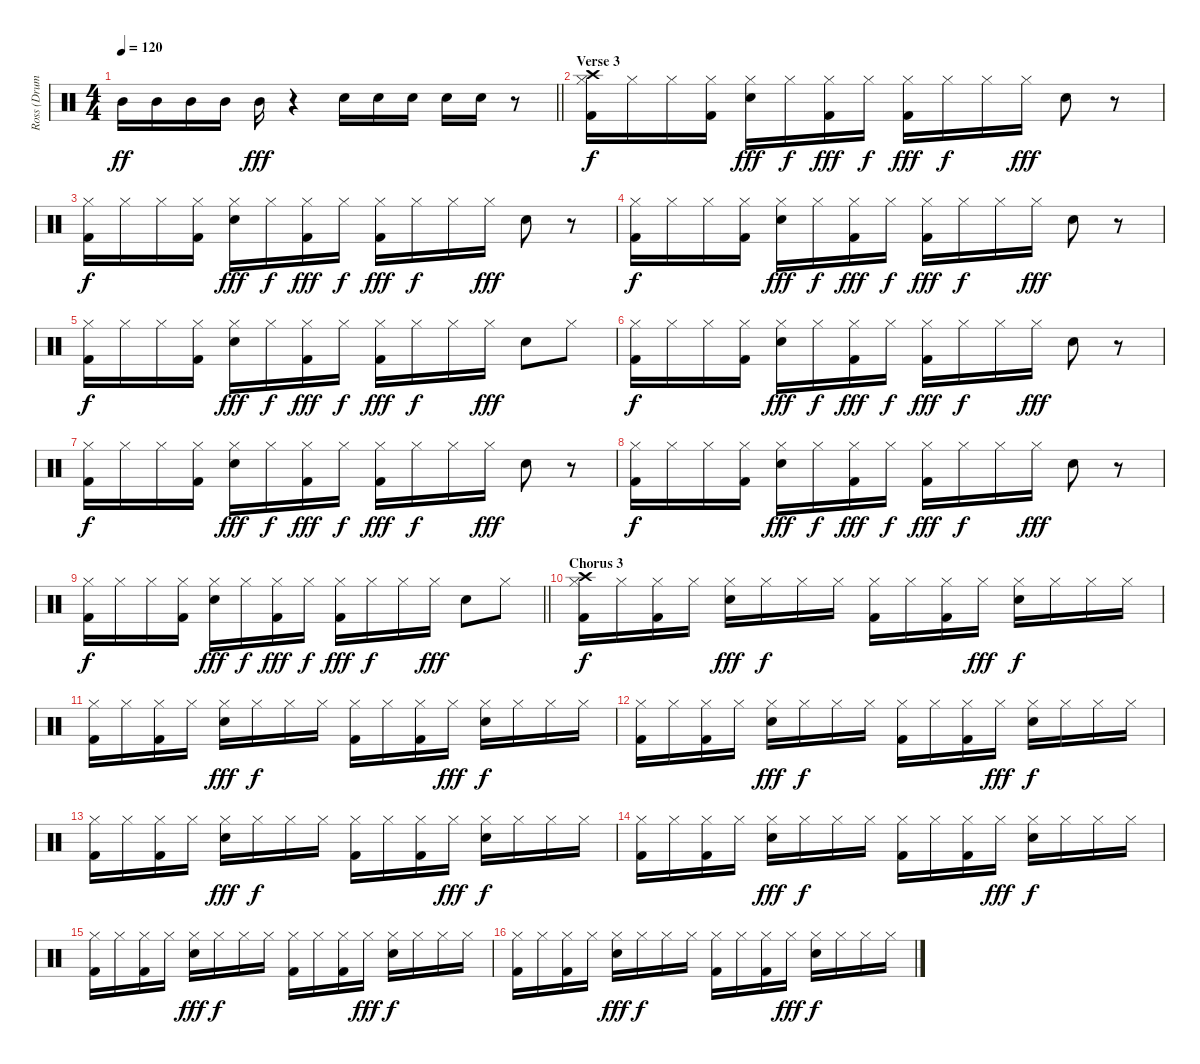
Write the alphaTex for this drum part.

\track ("Ross (Drums)" "Ross (Drum") {instrument percussion}
\staff {score}
\articulation defaults
\ts (4 4)
\tempo 120
\clef neutral
\barLineRight lightlight
\ks c "Mid Tom (hit)".16{dy ff} "Mid Tom (hit)".16 "Mid Tom (hit)".16 "Mid Tom (hit)".16 "Mid Tom (hit)".16{dy fff}
r.4 "Snare (hit) 2".16 "Snare (hit) 2".16 "Snare (hit) 2".16 "Snare (hit) 2".16 "Snare (hit) 2".16 r.8 |
\section ("" "Verse 3")
("Crash high (hit)" "Hi-Hat (closed)" "Kick (hit) 2").16{dy f} "Hi-Hat (closed)".16 "Hi-Hat (closed)".16 ("Hi-Hat (closed)" "Kick (hit) 2").16 ("Hi-Hat (closed)" "Snare (hit) 2").16{dy fff} "Hi-Hat (closed)".16{dy f} ("Hi-Hat (closed)" "Kick (hit) 2").16{dy fff} "Hi-Hat (closed)".16{dy f} ("Hi-Hat (closed)" "Kick (hit) 2").16{dy fff} "Hi-Hat (closed)".16{dy f} "Hi-Hat (closed)".16 "Hi-Hat (closed)".16{dy fff} "Snare (hit) 2".8 r.8 |
("Hi-Hat (closed)" "Kick (hit) 2").16{dy f} "Hi-Hat (closed)".16 "Hi-Hat (closed)".16 ("Hi-Hat (closed)" "Kick (hit) 2").16 ("Hi-Hat (closed)" "Snare (hit) 2").16{dy fff} "Hi-Hat (closed)".16{dy f} ("Hi-Hat (closed)" "Kick (hit) 2").16{dy fff} "Hi-Hat (closed)".16{dy f} ("Hi-Hat (closed)" "Kick (hit) 2").16{dy fff} "Hi-Hat (closed)".16{dy f} "Hi-Hat (closed)".16 "Hi-Hat (closed)".16{dy fff} "Snare (hit) 2".8 r.8 |
("Hi-Hat (closed)" "Kick (hit) 2").16{dy f} "Hi-Hat (closed)".16 "Hi-Hat (closed)".16 ("Hi-Hat (closed)" "Kick (hit) 2").16 ("Hi-Hat (closed)" "Snare (hit) 2").16{dy fff} "Hi-Hat (closed)".16{dy f} ("Hi-Hat (closed)" "Kick (hit) 2").16{dy fff} "Hi-Hat (closed)".16{dy f} ("Hi-Hat (closed)" "Kick (hit) 2").16{dy fff} "Hi-Hat (closed)".16{dy f} "Hi-Hat (closed)".16 "Hi-Hat (closed)".16{dy fff} "Snare (hit) 2".8 r.8 |
("Hi-Hat (closed)" "Kick (hit) 2").16{dy f} "Hi-Hat (closed)".16 "Hi-Hat (closed)".16 ("Hi-Hat (closed)" "Kick (hit) 2").16 ("Hi-Hat (closed)" "Snare (hit) 2").16{dy fff} "Hi-Hat (closed)".16{dy f} ("Hi-Hat (closed)" "Kick (hit) 2").16{dy fff} "Hi-Hat (closed)".16{dy f} ("Hi-Hat (closed)" "Kick (hit) 2").16{dy fff} "Hi-Hat (closed)".16{dy f} "Hi-Hat (closed)".16 "Hi-Hat (closed)".16{dy fff} "Snare (hit) 2".8 "Hi-Hat (closed)".8 |
("Hi-Hat (closed)" "Kick (hit) 2").16{dy f} "Hi-Hat (closed)".16 "Hi-Hat (closed)".16 ("Hi-Hat (closed)" "Kick (hit) 2").16 ("Hi-Hat (closed)" "Snare (hit) 2").16{dy fff} "Hi-Hat (closed)".16{dy f} ("Hi-Hat (closed)" "Kick (hit) 2").16{dy fff} "Hi-Hat (closed)".16{dy f} ("Hi-Hat (closed)" "Kick (hit) 2").16{dy fff} "Hi-Hat (closed)".16{dy f} "Hi-Hat (closed)".16 "Hi-Hat (closed)".16{dy fff} "Snare (hit) 2".8 r.8 |
("Hi-Hat (closed)" "Kick (hit) 2").16{dy f} "Hi-Hat (closed)".16 "Hi-Hat (closed)".16 ("Hi-Hat (closed)" "Kick (hit) 2").16 ("Hi-Hat (closed)" "Snare (hit) 2").16{dy fff} "Hi-Hat (closed)".16{dy f} ("Hi-Hat (closed)" "Kick (hit) 2").16{dy fff} "Hi-Hat (closed)".16{dy f} ("Hi-Hat (closed)" "Kick (hit) 2").16{dy fff} "Hi-Hat (closed)".16{dy f} "Hi-Hat (closed)".16 "Hi-Hat (closed)".16{dy fff} "Snare (hit) 2".8 r.8 |
("Hi-Hat (closed)" "Kick (hit) 2").16{dy f} "Hi-Hat (closed)".16 "Hi-Hat (closed)".16 ("Hi-Hat (closed)" "Kick (hit) 2").16 ("Hi-Hat (closed)" "Snare (hit) 2").16{dy fff} "Hi-Hat (closed)".16{dy f} ("Hi-Hat (closed)" "Kick (hit) 2").16{dy fff} "Hi-Hat (closed)".16{dy f} ("Hi-Hat (closed)" "Kick (hit) 2").16{dy fff} "Hi-Hat (closed)".16{dy f} "Hi-Hat (closed)".16 "Hi-Hat (closed)".16{dy fff} "Snare (hit) 2".8 r.8 |
\barLineRight lightlight
("Hi-Hat (closed)" "Kick (hit) 2").16{dy f} "Hi-Hat (closed)".16 "Hi-Hat (closed)".16 ("Hi-Hat (closed)" "Kick (hit) 2").16 ("Hi-Hat (closed)" "Snare (hit) 2").16{dy fff} "Hi-Hat (closed)".16{dy f} ("Hi-Hat (closed)" "Kick (hit) 2").16{dy fff} "Hi-Hat (closed)".16{dy f} ("Hi-Hat (closed)" "Kick (hit) 2").16{dy fff} "Hi-Hat (closed)".16{dy f} "Hi-Hat (closed)".16 "Hi-Hat (closed)".16{dy fff} "Snare (hit) 2".8 "Hi-Hat (closed)".8 |
\section ("" "Chorus 3")
("Crash high (hit)" "Hi-Hat (closed)" "Kick (hit) 2").16{dy f} "Hi-Hat (closed)".16 ("Hi-Hat (closed)" "Kick (hit) 2").16 "Hi-Hat (closed)".16 ("Hi-Hat (closed)" "Snare (hit) 2").16{dy fff} "Hi-Hat (closed)".16{dy f} "Hi-Hat (closed)".16 "Hi-Hat (closed)".16 ("Hi-Hat (closed)" "Kick (hit) 2").16 "Hi-Hat (closed)".16 ("Hi-Hat (closed)" "Kick (hit) 2").16 "Hi-Hat (closed)".16{dy fff} ("Hi-Hat (closed)" "Snare (hit) 2").16{dy f} "Hi-Hat (closed)".16 "Hi-Hat (closed)".16 "Hi-Hat (closed)".16 |
("Hi-Hat (closed)" "Kick (hit) 2").16 "Hi-Hat (closed)".16 ("Hi-Hat (closed)" "Kick (hit) 2").16 "Hi-Hat (closed)".16 ("Hi-Hat (closed)" "Snare (hit) 2").16{dy fff} "Hi-Hat (closed)".16{dy f} "Hi-Hat (closed)".16 "Hi-Hat (closed)".16 ("Hi-Hat (closed)" "Kick (hit) 2").16 "Hi-Hat (closed)".16 ("Hi-Hat (closed)" "Kick (hit) 2").16 "Hi-Hat (closed)".16{dy fff} ("Hi-Hat (closed)" "Snare (hit) 2").16{dy f} "Hi-Hat (closed)".16 "Hi-Hat (closed)".16 "Hi-Hat (closed)".16 |
("Hi-Hat (closed)" "Kick (hit) 2").16 "Hi-Hat (closed)".16 ("Hi-Hat (closed)" "Kick (hit) 2").16 "Hi-Hat (closed)".16 ("Hi-Hat (closed)" "Snare (hit) 2").16{dy fff} "Hi-Hat (closed)".16{dy f} "Hi-Hat (closed)".16 "Hi-Hat (closed)".16 ("Hi-Hat (closed)" "Kick (hit) 2").16 "Hi-Hat (closed)".16 ("Hi-Hat (closed)" "Kick (hit) 2").16 "Hi-Hat (closed)".16{dy fff} ("Hi-Hat (closed)" "Snare (hit) 2").16{dy f} "Hi-Hat (closed)".16 "Hi-Hat (closed)".16 "Hi-Hat (closed)".16 |
("Hi-Hat (closed)" "Kick (hit) 2").16 "Hi-Hat (closed)".16 ("Hi-Hat (closed)" "Kick (hit) 2").16 "Hi-Hat (closed)".16 ("Hi-Hat (closed)" "Snare (hit) 2").16{dy fff} "Hi-Hat (closed)".16{dy f} "Hi-Hat (closed)".16 "Hi-Hat (closed)".16 ("Hi-Hat (closed)" "Kick (hit) 2").16 "Hi-Hat (closed)".16 ("Hi-Hat (closed)" "Kick (hit) 2").16 "Hi-Hat (closed)".16{dy fff} ("Hi-Hat (closed)" "Snare (hit) 2").16{dy f} "Hi-Hat (closed)".16 "Hi-Hat (closed)".16 "Hi-Hat (closed)".16 |
("Hi-Hat (closed)" "Kick (hit) 2").16 "Hi-Hat (closed)".16 ("Hi-Hat (closed)" "Kick (hit) 2").16 "Hi-Hat (closed)".16 ("Hi-Hat (closed)" "Snare (hit) 2").16{dy fff} "Hi-Hat (closed)".16{dy f} "Hi-Hat (closed)".16 "Hi-Hat (closed)".16 ("Hi-Hat (closed)" "Kick (hit) 2").16 "Hi-Hat (closed)".16 ("Hi-Hat (closed)" "Kick (hit) 2").16 "Hi-Hat (closed)".16{dy fff} ("Hi-Hat (closed)" "Snare (hit) 2").16{dy f} "Hi-Hat (closed)".16 "Hi-Hat (closed)".16 "Hi-Hat (closed)".16 |
("Hi-Hat (closed)" "Kick (hit) 2").16 "Hi-Hat (closed)".16 ("Hi-Hat (closed)" "Kick (hit) 2").16 "Hi-Hat (closed)".16 ("Hi-Hat (closed)" "Snare (hit) 2").16{dy fff} "Hi-Hat (closed)".16{dy f} "Hi-Hat (closed)".16 "Hi-Hat (closed)".16 ("Hi-Hat (closed)" "Kick (hit) 2").16 "Hi-Hat (closed)".16 ("Hi-Hat (closed)" "Kick (hit) 2").16 "Hi-Hat (closed)".16{dy fff} ("Hi-Hat (closed)" "Snare (hit) 2").16{dy f} "Hi-Hat (closed)".16 "Hi-Hat (closed)".16 "Hi-Hat (closed)".16 |
("Hi-Hat (closed)" "Kick (hit) 2").16 "Hi-Hat (closed)".16 ("Hi-Hat (closed)" "Kick (hit) 2").16 "Hi-Hat (closed)".16 ("Hi-Hat (closed)" "Snare (hit) 2").16{dy fff} "Hi-Hat (closed)".16{dy f} "Hi-Hat (closed)".16 "Hi-Hat (closed)".16 ("Hi-Hat (closed)" "Kick (hit) 2").16 "Hi-Hat (closed)".16 ("Hi-Hat (closed)" "Kick (hit) 2").16 "Hi-Hat (closed)".16{dy fff} ("Hi-Hat (closed)" "Snare (hit) 2").16{dy f} "Hi-Hat (closed)".16 "Hi-Hat (closed)".16 "Hi-Hat (closed)".16
